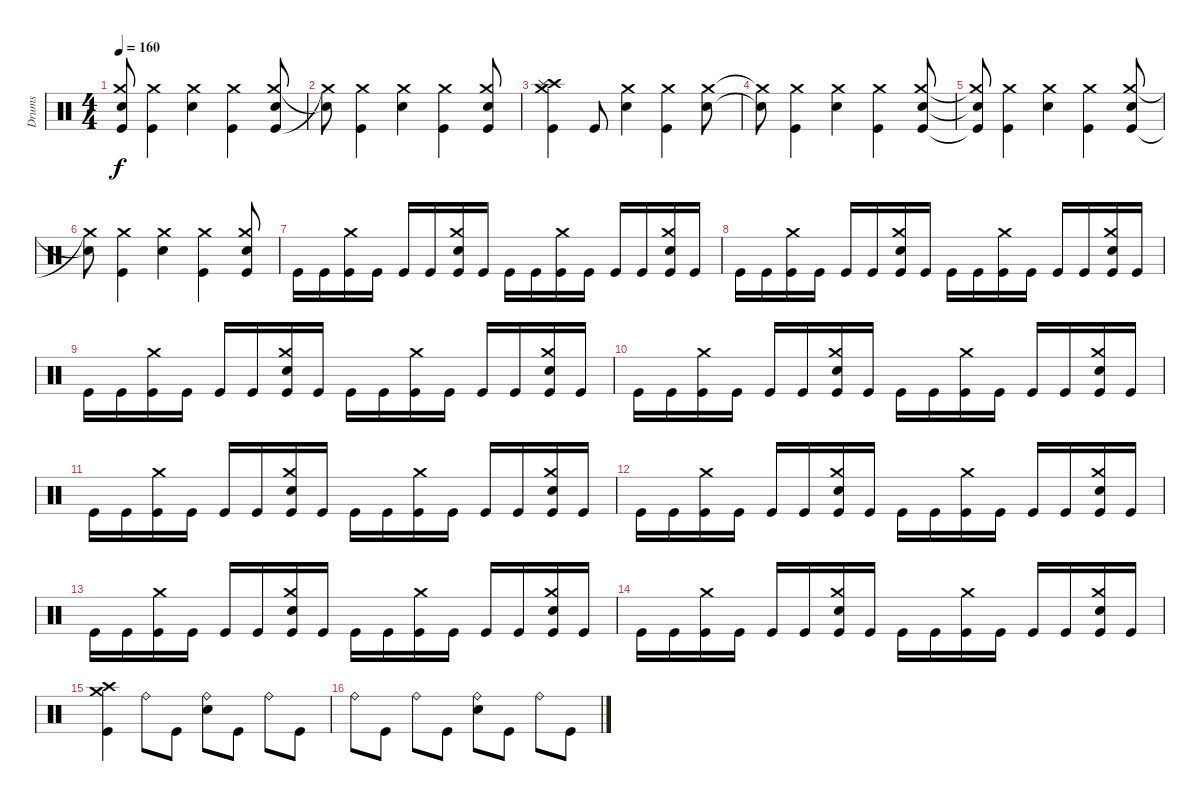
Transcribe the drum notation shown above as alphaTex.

\track ("Drums" "Drums") {instrument percussion}
\staff {score}
\articulation defaults
\ts (4 4)
\tempo 160
\clef neutral
\ks c
("Kick (hit)"{t} "Crash medium (hit)"{t} "Snare (hit)"{t}).8{dy f} ("Kick (hit)" "Crash medium (hit)").4 ("Crash medium (hit)" "Electric Snare (hit)").4 ("Kick (hit)" "Crash medium (hit)").4 ("Kick (hit)" "Crash medium (hit)" "Electric Snare (hit)").8 |
("Crash medium (hit)"{t} "Snare (hit)"{t}).8 ("Kick (hit)" "Crash medium (hit)").4 ("Crash medium (hit)" "Electric Snare (hit)").4 ("Kick (hit)" "Crash medium (hit)").4 ("Kick (hit)" "Crash medium (hit)" "Electric Snare (hit)").8 |
("Kick (hit)" "Crash medium (hit)" "Crash high (hit)" "Splash (hit)").4 "Kick (hit)".8 ("Crash medium (hit)" "Electric Snare (hit)").4 ("Kick (hit)" "Crash medium (hit)").4 ("Crash medium (hit)" "Electric Snare (hit)").8 |
("Crash medium (hit)"{t} "Snare (hit)"{t}).8 ("Kick (hit)" "Crash medium (hit)").4 ("Crash medium (hit)" "Electric Snare (hit)").4 ("Kick (hit)" "Crash medium (hit)").4 ("Kick (hit)" "Crash medium (hit)" "Electric Snare (hit)").8 |
("Kick (hit)"{t} "Crash medium (hit)"{t} "Snare (hit)"{t}).8 ("Kick (hit)" "Crash medium (hit)").4 ("Crash medium (hit)" "Electric Snare (hit)").4 ("Kick (hit)" "Crash medium (hit)").4 ("Kick (hit)" "Crash medium (hit)" "Electric Snare (hit)").8 |
("Crash medium (hit)"{t} "Snare (hit)"{t}).8 ("Kick (hit)" "Crash medium (hit)").4 ("Crash medium (hit)" "Electric Snare (hit)").4 ("Kick (hit)" "Crash medium (hit)").4 ("Kick (hit)" "Crash medium (hit)" "Electric Snare (hit)").8 |
"Kick (hit)".16 "Kick (hit)".16 ("Kick (hit)" "Crash medium (hit)").16 "Kick (hit)".16 "Kick (hit)".16 "Kick (hit)".16 ("Kick (hit)" "Crash medium (hit)" "Electric Snare (hit)").16 "Kick (hit)".16 "Kick (hit)".16 "Kick (hit)".16 ("Kick (hit)" "Crash medium (hit)").16 "Kick (hit)".16 "Kick (hit)".16 "Kick (hit)".16 ("Kick (hit)" "Crash medium (hit)" "Electric Snare (hit)").16 "Kick (hit)".16 |
"Kick (hit)".16 "Kick (hit)".16 ("Kick (hit)" "Crash medium (hit)").16 "Kick (hit)".16 "Kick (hit)".16 "Kick (hit)".16 ("Kick (hit)" "Crash medium (hit)" "Electric Snare (hit)").16 "Kick (hit)".16 "Kick (hit)".16 "Kick (hit)".16 ("Kick (hit)" "Crash medium (hit)").16 "Kick (hit)".16 "Kick (hit)".16 "Kick (hit)".16 ("Kick (hit)" "Crash medium (hit)" "Electric Snare (hit)").16 "Kick (hit)".16 |
"Kick (hit)".16 "Kick (hit)".16 ("Kick (hit)" "Crash medium (hit)").16 "Kick (hit)".16 "Kick (hit)".16 "Kick (hit)".16 ("Kick (hit)" "Crash medium (hit)" "Electric Snare (hit)").16 "Kick (hit)".16 "Kick (hit)".16 "Kick (hit)".16 ("Kick (hit)" "Crash medium (hit)").16 "Kick (hit)".16 "Kick (hit)".16 "Kick (hit)".16 ("Kick (hit)" "Crash medium (hit)" "Electric Snare (hit)").16 "Kick (hit)".16 |
"Kick (hit)".16 "Kick (hit)".16 ("Kick (hit)" "Crash medium (hit)").16 "Kick (hit)".16 "Kick (hit)".16 "Kick (hit)".16 ("Kick (hit)" "Crash medium (hit)" "Electric Snare (hit)").16 "Kick (hit)".16 "Kick (hit)".16 "Kick (hit)".16 ("Kick (hit)" "Crash medium (hit)").16 "Kick (hit)".16 "Kick (hit)".16 "Kick (hit)".16 ("Kick (hit)" "Crash medium (hit)" "Electric Snare (hit)").16 "Kick (hit)".16 |
"Kick (hit)".16 "Kick (hit)".16 ("Kick (hit)" "Crash medium (hit)").16 "Kick (hit)".16 "Kick (hit)".16 "Kick (hit)".16 ("Kick (hit)" "Crash medium (hit)" "Electric Snare (hit)").16 "Kick (hit)".16 "Kick (hit)".16 "Kick (hit)".16 ("Kick (hit)" "Crash medium (hit)").16 "Kick (hit)".16 "Kick (hit)".16 "Kick (hit)".16 ("Kick (hit)" "Crash medium (hit)" "Electric Snare (hit)").16 "Kick (hit)".16 |
"Kick (hit)".16 "Kick (hit)".16 ("Kick (hit)" "Crash medium (hit)").16 "Kick (hit)".16 "Kick (hit)".16 "Kick (hit)".16 ("Kick (hit)" "Crash medium (hit)" "Electric Snare (hit)").16 "Kick (hit)".16 "Kick (hit)".16 "Kick (hit)".16 ("Kick (hit)" "Crash medium (hit)").16 "Kick (hit)".16 "Kick (hit)".16 "Kick (hit)".16 ("Kick (hit)" "Crash medium (hit)" "Electric Snare (hit)").16 "Kick (hit)".16 |
"Kick (hit)".16 "Kick (hit)".16 ("Kick (hit)" "Crash medium (hit)").16 "Kick (hit)".16 "Kick (hit)".16 "Kick (hit)".16 ("Kick (hit)" "Crash medium (hit)" "Electric Snare (hit)").16 "Kick (hit)".16 "Kick (hit)".16 "Kick (hit)".16 ("Kick (hit)" "Crash medium (hit)").16 "Kick (hit)".16 "Kick (hit)".16 "Kick (hit)".16 ("Kick (hit)" "Crash medium (hit)" "Electric Snare (hit)").16 "Kick (hit)".16 |
"Kick (hit)".16 "Kick (hit)".16 ("Kick (hit)" "Crash medium (hit)").16 "Kick (hit)".16 "Kick (hit)".16 "Kick (hit)".16 ("Kick (hit)" "Crash medium (hit)" "Electric Snare (hit)").16 "Kick (hit)".16 "Kick (hit)".16 "Kick (hit)".16 ("Kick (hit)" "Crash medium (hit)").16 "Kick (hit)".16 "Kick (hit)".16 "Kick (hit)".16 ("Kick (hit)" "Crash medium (hit)" "Electric Snare (hit)").16 "Kick (hit)".16 |
("Kick (hit)" "Crash medium (hit)" "Crash high (hit)").4 "Ride (bell)".8 "Kick (hit)".8 ("Electric Snare (hit)" "Ride (bell)").8 "Kick (hit)".8 "Ride (bell)".8 "Kick (hit)".8 |
"Ride (bell)".8 "Kick (hit)".8 "Ride (bell)".8 "Kick (hit)".8 ("Electric Snare (hit)" "Ride (bell)").8 "Kick (hit)".8 "Ride (bell)".8 "Kick (hit)".8
